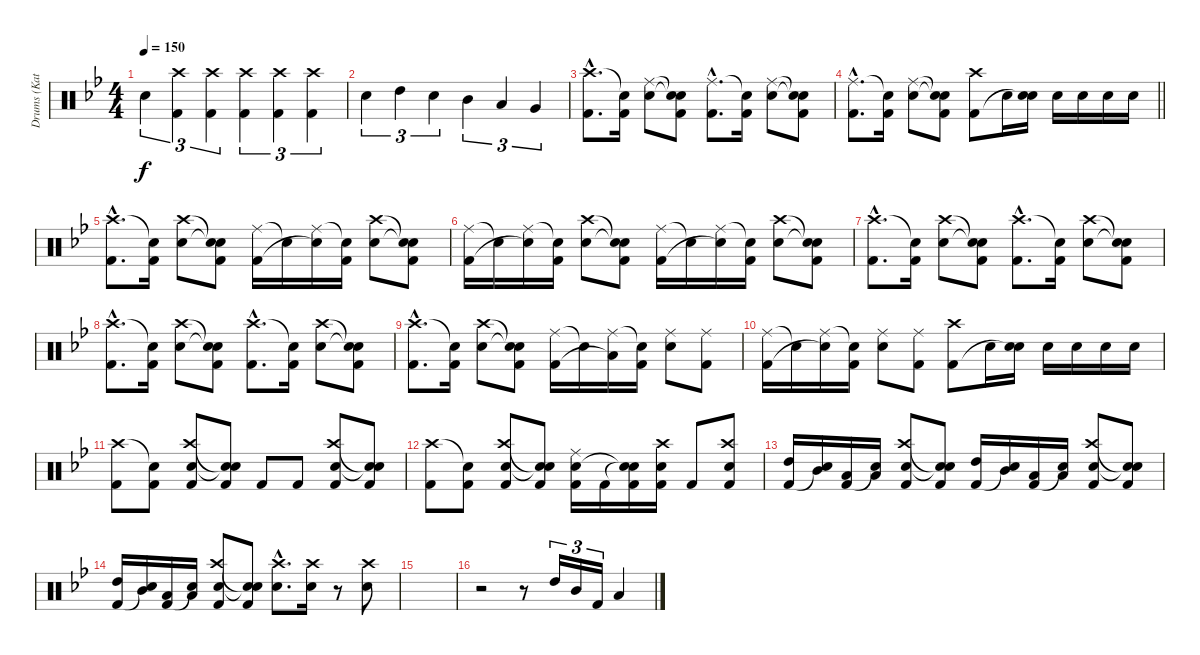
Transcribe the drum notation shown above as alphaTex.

\track ("Drums (Katsuji)" "Drums (Kat") {instrument percussion}
\staff {score}
\articulation defaults
\ts (4 4)
\tempo 150
\clef neutral
\ks bb "Snare (hit) 2".4{tu (3 2) dy f}
("Crash high (hit)" "Kick (hit) 2").4{tu (3 2)} ("Crash high (hit)" "Kick (hit) 2").4{tu (3 2)} ("Crash high (hit)" "Kick (hit) 2").4{tu (3 2)} ("Crash high (hit)" "Kick (hit) 2").4{tu (3 2)} ("Crash high (hit)" "Kick (hit) 2").4{tu (3 2)} |
"Snare (hit) 2".4{tu (3 2)} "High Tom (hit)".4{tu (3 2)} "Snare (hit) 2".4{tu (3 2)} "Mid Tom (hit)".4{tu (3 2)} "Low Tom (hit)".4{tu (3 2)} "Very Low Tom (hit)".4{tu (3 2)} |
("Crash high (hit)"{hac} "Kick (hit) 2"{hac}).8{d} ("Snare (hit)"{t} "Kick (hit) 2").16 ("Ride (middle)" "Snare (hit) 2").8 ("Snare (hit)"{t} "Snare (hit)"{t} "Kick (hit) 2").8 ("Ride (middle)"{hac} "Kick (hit) 2"{hac}).8{d} ("Snare (hit)"{t} "Kick (hit) 2").16 ("Ride (middle)" "Snare (hit) 2").8 ("Snare (hit)"{t} "Snare (hit)"{t} "Kick (hit) 2").8 |
\barLineRight lightlight
("Ride (middle)"{hac} "Kick (hit) 2"{hac}).8{d} ("Snare (hit)"{t} "Kick (hit) 2").16 ("Ride (middle)" "Snare (hit) 2").8 ("Snare (hit)"{t} "Snare (hit)"{t} "Kick (hit) 2").8 ("Crash high (hit)" "Kick (hit) 2").8 "Snare (hit) 2".16 ("Snare (hit) 2" "Snare (hit)"{t}).16 "Snare (hit) 2".16 "Snare (hit) 2".16 "Snare (hit) 2".16 "Snare (hit) 2".16 |
("Crash high (hit)"{hac} "Kick (hit) 2"{hac}).8{d} ("Snare (hit)"{t} "Kick (hit) 2").16 ("Crash high (hit)" "Snare (hit) 2").8 ("Snare (hit)"{t} "Snare (hit)"{t} "Kick (hit) 2").8 ("Ride (middle)" "Kick (hit) 2").16 "Snare (hit)"{t}.16 ("Ride (middle)" "Snare (hit)"{t}).16 ("Snare (hit)"{t} "Kick (hit) 2").16 ("Crash high (hit)" "Snare (hit) 2").8 ("Snare (hit)"{t} "Snare (hit)"{t} "Kick (hit) 2").8 |
("Ride (middle)" "Kick (hit) 2").16 "Snare (hit)"{t}.16 ("Ride (middle)" "Snare (hit)"{t}).16 ("Snare (hit)"{t} "Kick (hit) 2").16 ("Crash high (hit)" "Snare (hit) 2").8 ("Snare (hit)"{t} "Snare (hit)"{t} "Kick (hit) 2").8 ("Ride (middle)" "Kick (hit) 2").16 "Snare (hit)"{t}.16 ("Ride (middle)" "Snare (hit)"{t}).16 ("Snare (hit)"{t} "Kick (hit) 2").16 ("Crash high (hit)" "Snare (hit) 2").8 ("Snare (hit)"{t} "Snare (hit)"{t} "Kick (hit) 2").8 |
("Crash high (hit)"{hac} "Kick (hit) 2"{hac}).8{d} ("Snare (hit)"{t} "Kick (hit) 2").16 ("Crash high (hit)" "Snare (hit) 2").8 ("Snare (hit)"{t} "Snare (hit)"{t} "Kick (hit) 2").8 ("Crash high (hit)"{hac} "Kick (hit) 2"{hac}).8{d} ("Snare (hit)"{t} "Kick (hit) 2").16 ("Crash high (hit)" "Snare (hit) 2").8 ("Snare (hit)"{t} "Snare (hit)"{t} "Kick (hit) 2").8 |
("Crash high (hit)"{hac} "Kick (hit) 2"{hac}).8{d} ("Snare (hit)"{t} "Kick (hit) 2").16 ("Crash high (hit)" "Snare (hit) 2").8 ("Snare (hit)"{t} "Snare (hit)"{t} "Kick (hit) 2").8 ("Crash high (hit)"{hac} "Kick (hit) 2"{hac}).8{d} ("Snare (hit)"{t} "Kick (hit) 2").16 ("Crash high (hit)" "Snare (hit) 2").8 ("Snare (hit)"{t} "Snare (hit)"{t} "Kick (hit) 2").8 |
("Crash high (hit)"{hac} "Kick (hit) 2"{hac}).8{d} ("Snare (hit)"{t} "Kick (hit) 2").16 ("Crash high (hit)" "Snare (hit) 2").8 ("Snare (hit)"{t} "Snare (hit)"{t} "Kick (hit) 2").8 ("Ride (middle)" "Kick (hit) 2").16 "Snare (hit)"{t}.16 ("Ride (middle)" "Low Floor Tom (hit)"{t}).16 ("Snare (hit)"{t} "Kick (hit) 2").16 ("Ride (middle)" "Snare (hit) 2").8 ("Ride (middle)" "Kick (hit) 2").8 |
("Ride (middle)" "Kick (hit) 2").16 "Snare (hit)"{t}.16 ("Ride (middle)" "Snare (hit)"{t}).16 ("Snare (hit)"{t} "Kick (hit) 2").16 ("Ride (middle)" "Snare (hit) 2").8 ("Ride (middle)" "Kick (hit) 2").8 ("Crash high (hit)" "Kick (hit) 2").8 "Snare (hit) 2".16 ("Snare (hit) 2" "Snare (hit)"{t}).16 "Snare (hit) 2".16 "Snare (hit) 2".16 "Snare (hit) 2".16 "Snare (hit) 2".16 |
("Crash high (hit)" "Kick (hit) 2").8 ("Snare (hit)"{t} "Kick (hit) 2").8 ("Crash high (hit)" "Snare (hit) 2" "Kick (hit) 2").8 ("Snare (hit)"{t} "Snare (hit)"{t} "Kick (hit) 2").8 "Kick (hit) 2".8 "Kick (hit) 2".8 ("Crash high (hit)" "Snare (hit) 2" "Kick (hit) 2").8 ("Snare (hit)"{t} "Snare (hit)"{t} "Kick (hit) 2").8 |
("Crash high (hit)" "Kick (hit) 2").8 ("Snare (hit)"{t} "Kick (hit) 2").8 ("Crash high (hit)" "Snare (hit) 2" "Kick (hit) 2").8 ("Snare (hit)"{t} "Snare (hit)"{t} "Kick (hit) 2").8 ("Ride (middle)" "Snare (hit) 2" "Kick (hit) 2").16 "Kick (hit) 2".16 ("Snare (hit)"{t} "Snare (hit)"{t} "Kick (hit) 2").16 ("Crash high (hit)" "Snare (hit) 2" "Kick (hit) 2").16 "Kick (hit) 2".8 ("Crash high (hit)" "Snare (hit) 2" "Kick (hit) 2").8 |
("High Tom (hit)" "Kick (hit) 2").16 ("Mid Tom (hit)" "Snare (hit)"{t}).16 ("Low Tom (hit)" "Kick (hit) 2").16 ("Low Tom (hit)" "Snare (hit)"{t}).16 ("Crash high (hit)" "Snare (hit) 2" "Kick (hit) 2").8 ("Snare (hit)"{t} "Snare (hit)"{t} "Kick (hit) 2").8 ("High Tom (hit)" "Kick (hit) 2").16 ("Mid Tom (hit)" "Snare (hit)"{t}).16 ("Low Tom (hit)" "Kick (hit) 2").16 ("Low Tom (hit)" "Snare (hit)"{t}).16 ("Crash high (hit)" "Snare (hit) 2" "Kick (hit) 2").8 ("Snare (hit)"{t} "Snare (hit)"{t} "Kick (hit) 2").8 |
("High Tom (hit)" "Kick (hit) 2").16 ("Mid Tom (hit)" "Snare (hit)"{t}).16 ("Low Tom (hit)" "Kick (hit) 2").16 ("Low Tom (hit)" "Snare (hit)"{t}).16 ("Crash high (hit)" "Snare (hit) 2" "Kick (hit) 2").8 ("Snare (hit)"{t} "Snare (hit)"{t} "Kick (hit) 2").8 ("Crash high (hit)"{hac} "Snare (hit) 2"{hac}).8{d} ("Crash high (hit)" "Snare (hit) 2").16 r.8 ("Crash high (hit)" "Snare (hit) 2").8 |
|
r.2 r.8 "High Tom (hit)".16{tu (3 2)} "Mid Tom (hit)".16{tu (3 2)} "Kick (hit) 2".16{tu (3 2)} "Low Tom (hit)".4
